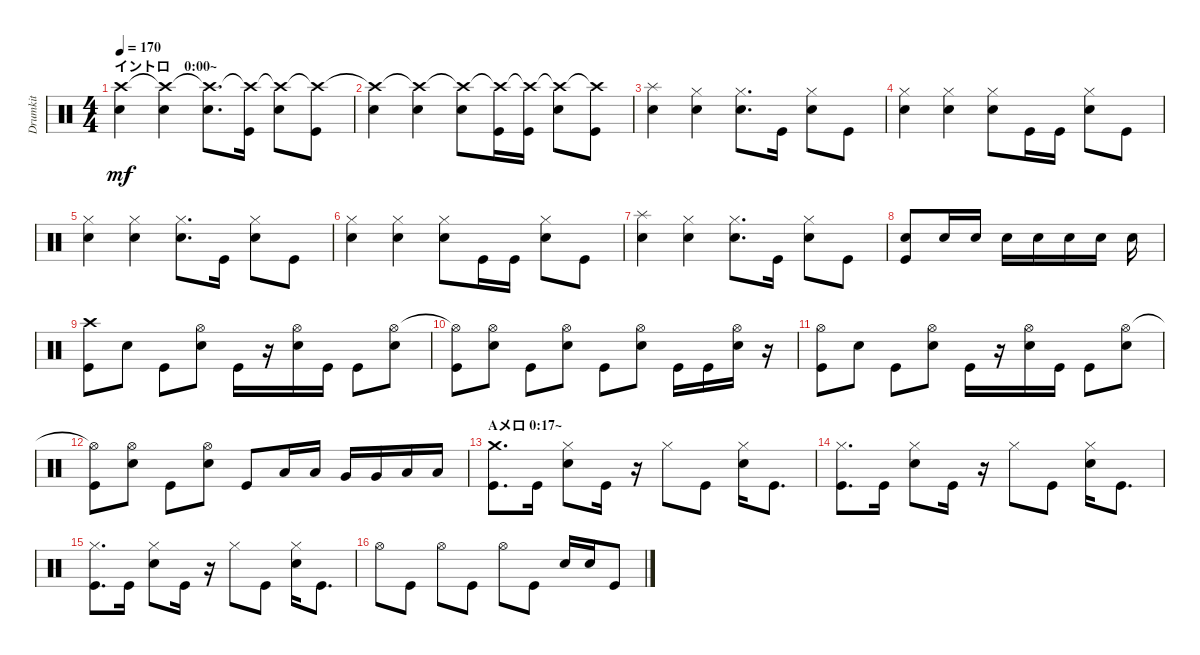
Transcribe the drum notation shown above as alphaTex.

\track ("Drumkit" "Drumkit") {instrument percussion}
\staff {score}
\articulation defaults
\ts (4 4)
\section ("" "イントロ　0:00~")
\tempo 170
\clef neutral
\ks c
("Snare (hit) 2" "Crash high (hit)").4{dy mf} ("Snare (hit) 2" "Crash high (hit)"{t}).4 ("Snare (hit) 2" "Crash high (hit)"{t}).8{d} ("Kick (hit)" "Crash high (hit)"{t}).16 ("Snare (hit) 2" "Crash high (hit)"{t}).8 ("Kick (hit)" "Crash high (hit)"{t}).8 |
("Snare (hit) 2" "Crash high (hit)"{t}).4 ("Snare (hit) 2" "Crash high (hit)"{t}).4 ("Snare (hit) 2" "Crash high (hit)"{t}).8 ("Kick (hit)" "Crash high (hit)"{t}).16 ("Kick (hit)" "Crash high (hit)"{t}).16 ("Snare (hit) 2" "Crash high (hit)"{t}).8 ("Kick (hit)" "Crash high (hit)"{t}).8 |
("Snare (hit) 2" "Splash (hit)").4 ("Snare (hit) 2" "Hi-Hat (closed)").4 ("Snare (hit) 2" "Hi-Hat (closed)").8{d} "Kick (hit)".16 ("Snare (hit) 2" "Hi-Hat (closed)").8 "Kick (hit)".8 |
("Snare (hit) 2" "Hi-Hat (closed)").4 ("Snare (hit) 2" "Hi-Hat (closed)").4 ("Snare (hit) 2" "Hi-Hat (closed)").8 "Kick (hit)".16 "Kick (hit)".16 ("Snare (hit) 2" "Hi-Hat (closed)").8 "Kick (hit)".8 |
("Snare (hit) 2" "Hi-Hat (closed)").4 ("Snare (hit) 2" "Hi-Hat (closed)").4 ("Snare (hit) 2" "Hi-Hat (closed)").8{d} "Kick (hit)".16 ("Snare (hit) 2" "Hi-Hat (closed)").8 "Kick (hit)".8 |
("Snare (hit) 2" "Hi-Hat (closed)").4 ("Snare (hit) 2" "Hi-Hat (closed)").4 ("Snare (hit) 2" "Hi-Hat (closed)").8 "Kick (hit)".16 "Kick (hit)".16 ("Snare (hit) 2" "Hi-Hat (closed)").8 "Kick (hit)".8 |
("Snare (hit) 2" "Splash (hit)").4 ("Snare (hit) 2" "Hi-Hat (closed)").4 ("Snare (hit) 2" "Hi-Hat (closed)").8{d} "Kick (hit)".16 ("Snare (hit) 2" "Hi-Hat (closed)").8 "Kick (hit)".8 |
("Kick (hit)" "Snare (hit) 2").8 "Snare (hit) 2".16 "Snare (hit) 2".16 "Snare (hit) 2".16 "Snare (hit) 2".16 "Snare (hit) 2".16 "Snare (hit) 2".16 "Snare (hit) 2".16 |
("Crash high (hit)" "Kick (hit)").8 "Snare (hit) 2".8 "Kick (hit)".8 ("Snare (hit) 2" "Hi-Hat (open)").8 "Kick (hit)".16 r.16 ("Snare (hit) 2" "Hi-Hat (open)").16 "Kick (hit)".16 "Kick (hit)".8 ("Snare (hit) 2" "Hi-Hat (open)").8 |
("Kick (hit)" "Hi-Hat (open)"{t}).8 ("Snare (hit) 2" "Hi-Hat (open)").8 "Kick (hit)".8 ("Snare (hit) 2" "Hi-Hat (open)").8 "Kick (hit)".8 ("Snare (hit) 2" "Hi-Hat (open)").8 "Kick (hit)".16 "Kick (hit)".16 ("Snare (hit) 2" "Hi-Hat (open)").16 r.16 |
("Kick (hit)" "Hi-Hat (open)").8 "Snare (hit) 2".8 "Kick (hit)".8 ("Snare (hit) 2" "Hi-Hat (open)").8 "Kick (hit)".16 r.16 ("Snare (hit) 2" "Hi-Hat (open)").16 "Kick (hit)".16 "Kick (hit)".8 ("Snare (hit) 2" "Hi-Hat (open)").8 |
("Kick (hit)" "Hi-Hat (open)"{t}).8 ("Snare (hit) 2" "Hi-Hat (open)").8 "Kick (hit)".8 ("Snare (hit) 2" "Hi-Hat (open)").8 "Kick (hit)".8 "Low Tom (hit)".16 "Low Tom (hit)".16 "Very Low Tom (hit)".16 "Very Low Tom (hit)".16 "Low Floor Tom (hit)".16 "Low Floor Tom (hit)".16 |
\section ("" "Aメロ 0:17~")
("Kick (hit)" "Crash medium (hit)").8{d} "Kick (hit)".16 ("Snare (hit) 2" "Hi-Hat (closed)").8 "Kick (hit)".16 r.16 "Hi-Hat (closed)".8 "Kick (hit)".8 ("Snare (hit) 2" "Hi-Hat (closed)").16 "Kick (hit)".8{d} |
("Kick (hit)" "Hi-Hat (closed)").8{d} "Kick (hit)".16 ("Snare (hit) 2" "Hi-Hat (closed)").8 "Kick (hit)".16 r.16 "Hi-Hat (closed)".8 "Kick (hit)".8 ("Snare (hit) 2" "Hi-Hat (closed)").16 "Kick (hit)".8{d} |
("Kick (hit)" "Hi-Hat (closed)").8{d} "Kick (hit)".16 ("Snare (hit) 2" "Hi-Hat (closed)").8 "Kick (hit)".16 r.16 "Hi-Hat (closed)".8 "Kick (hit)".8 ("Snare (hit) 2" "Hi-Hat (closed)").16 "Kick (hit)".8{d} |
"Hi-Hat (open)".8 "Kick (hit)".8 "Hi-Hat (open)".8 "Kick (hit)".8 "Hi-Hat (open)".8 "Kick (hit)".8 "Snare (hit) 2".16 "Snare (hit) 2".16 "Kick (hit)".8
